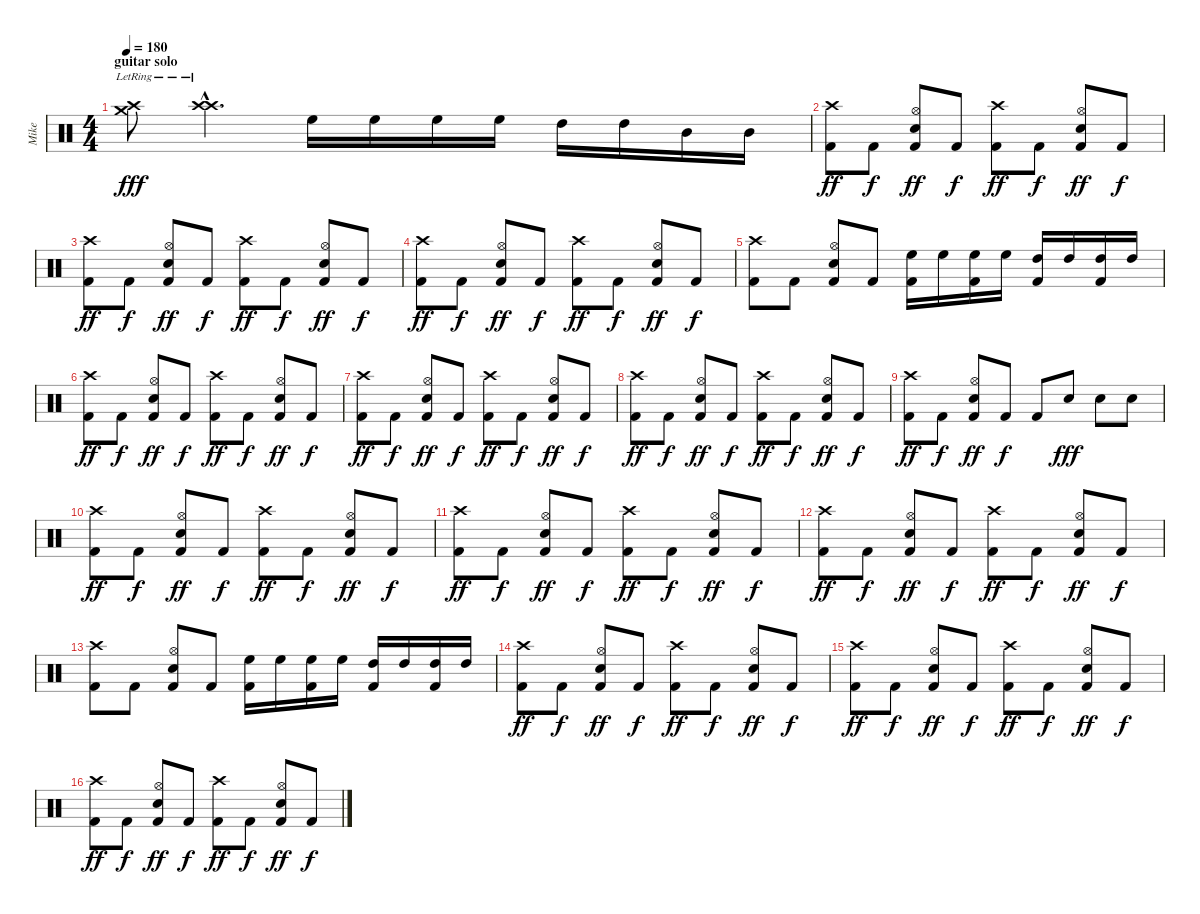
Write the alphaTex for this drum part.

\track ("Mike" "Mike") {instrument percussion}
\staff {score}
\articulation defaults
\ts (4 4)
\section ("" "guitar solo")
\tempo 180
\clef neutral
\ks c
("Crash high (hit)"{lr} "Crash medium (hit)"{lr}).8{dy fff} ("Crash high (hit)"{hac lr} "Crash high (hit)"{hac lr}).4{d} "High Floor Tom (hit)".16 "High Floor Tom (hit)".16 "High Floor Tom (hit)".16 "High Floor Tom (hit)".16 "High Tom (hit)".16 "High Tom (hit)".16 "Mid Tom (hit)".16 "Mid Tom (hit)".16 |
("Crash high (hit)" "Kick (hit) 2").8{dy ff} "Kick (hit) 2".8{dy f} ("Hi-Hat (open)" "Snare (hit) 2" "Kick (hit) 2").8{dy ff} "Kick (hit) 2".8{dy f} ("Crash high (hit)" "Kick (hit) 2").8{dy ff} "Kick (hit) 2".8{dy f} ("Hi-Hat (open)" "Snare (hit) 2" "Kick (hit) 2").8{dy ff} "Kick (hit) 2".8{dy f} |
("Crash high (hit)" "Kick (hit) 2").8{dy ff} "Kick (hit) 2".8{dy f} ("Hi-Hat (open)" "Snare (hit) 2" "Kick (hit) 2").8{dy ff} "Kick (hit) 2".8{dy f} ("Crash high (hit)" "Kick (hit) 2").8{dy ff} "Kick (hit) 2".8{dy f} ("Hi-Hat (open)" "Snare (hit) 2" "Kick (hit) 2").8{dy ff} "Kick (hit) 2".8{dy f} |
("Crash high (hit)" "Kick (hit) 2").8{dy ff} "Kick (hit) 2".8{dy f} ("Hi-Hat (open)" "Snare (hit) 2" "Kick (hit) 2").8{dy ff} "Kick (hit) 2".8{dy f} ("Crash high (hit)" "Kick (hit) 2").8{dy ff} "Kick (hit) 2".8{dy f} ("Hi-Hat (open)" "Snare (hit) 2" "Kick (hit) 2").8{dy ff} "Kick (hit) 2".8{dy f} |
("Crash high (hit)" "Kick (hit) 2").8 "Kick (hit) 2".8 ("Hi-Hat (open)" "Snare (hit) 2" "Kick (hit) 2").8 "Kick (hit) 2".8 ("High Floor Tom (hit)" "Kick (hit) 2").16 "High Floor Tom (hit)".16 ("High Floor Tom (hit)" "Kick (hit) 2").16 "High Floor Tom (hit)".16 ("High Tom (hit)" "Kick (hit) 2").16 "High Tom (hit)".16 ("High Tom (hit)" "Kick (hit) 2").16 "High Tom (hit)".16 |
("Crash high (hit)" "Kick (hit) 2").8{dy ff} "Kick (hit) 2".8{dy f} ("Hi-Hat (open)" "Snare (hit) 2" "Kick (hit) 2").8{dy ff} "Kick (hit) 2".8{dy f} ("Crash high (hit)" "Kick (hit) 2").8{dy ff} "Kick (hit) 2".8{dy f} ("Hi-Hat (open)" "Snare (hit) 2" "Kick (hit) 2").8{dy ff} "Kick (hit) 2".8{dy f} |
("Crash high (hit)" "Kick (hit) 2").8{dy ff} "Kick (hit) 2".8{dy f} ("Hi-Hat (open)" "Snare (hit) 2" "Kick (hit) 2").8{dy ff} "Kick (hit) 2".8{dy f} ("Crash high (hit)" "Kick (hit) 2").8{dy ff} "Kick (hit) 2".8{dy f} ("Hi-Hat (open)" "Snare (hit) 2" "Kick (hit) 2").8{dy ff} "Kick (hit) 2".8{dy f} |
("Crash high (hit)" "Kick (hit) 2").8{dy ff} "Kick (hit) 2".8{dy f} ("Hi-Hat (open)" "Snare (hit) 2" "Kick (hit) 2").8{dy ff} "Kick (hit) 2".8{dy f} ("Crash high (hit)" "Kick (hit) 2").8{dy ff} "Kick (hit) 2".8{dy f} ("Hi-Hat (open)" "Snare (hit) 2" "Kick (hit) 2").8{dy ff} "Kick (hit) 2".8{dy f} |
("Crash high (hit)" "Kick (hit) 2").8{dy ff} "Kick (hit) 2".8{dy f} ("Hi-Hat (open)" "Snare (hit) 2" "Kick (hit) 2").8{dy ff} "Kick (hit) 2".8{dy f} "Kick (hit) 2".8 "Snare (hit) 2".8{dy fff} "Snare (hit) 2".8 "Snare (hit) 2".8 |
("Crash high (hit)" "Kick (hit) 2").8{dy ff} "Kick (hit) 2".8{dy f} ("Hi-Hat (open)" "Snare (hit) 2" "Kick (hit) 2").8{dy ff} "Kick (hit) 2".8{dy f} ("Crash high (hit)" "Kick (hit) 2").8{dy ff} "Kick (hit) 2".8{dy f} ("Hi-Hat (open)" "Snare (hit) 2" "Kick (hit) 2").8{dy ff} "Kick (hit) 2".8{dy f} |
("Crash high (hit)" "Kick (hit) 2").8{dy ff} "Kick (hit) 2".8{dy f} ("Hi-Hat (open)" "Snare (hit) 2" "Kick (hit) 2").8{dy ff} "Kick (hit) 2".8{dy f} ("Crash high (hit)" "Kick (hit) 2").8{dy ff} "Kick (hit) 2".8{dy f} ("Hi-Hat (open)" "Snare (hit) 2" "Kick (hit) 2").8{dy ff} "Kick (hit) 2".8{dy f} |
("Crash high (hit)" "Kick (hit) 2").8{dy ff} "Kick (hit) 2".8{dy f} ("Hi-Hat (open)" "Snare (hit) 2" "Kick (hit) 2").8{dy ff} "Kick (hit) 2".8{dy f} ("Crash high (hit)" "Kick (hit) 2").8{dy ff} "Kick (hit) 2".8{dy f} ("Hi-Hat (open)" "Snare (hit) 2" "Kick (hit) 2").8{dy ff} "Kick (hit) 2".8{dy f} |
("Crash high (hit)" "Kick (hit) 2").8 "Kick (hit) 2".8 ("Hi-Hat (open)" "Snare (hit) 2" "Kick (hit) 2").8 "Kick (hit) 2".8 ("High Floor Tom (hit)" "Kick (hit) 2").16 "High Floor Tom (hit)".16 ("High Floor Tom (hit)" "Kick (hit) 2").16 "High Floor Tom (hit)".16 ("High Tom (hit)" "Kick (hit) 2").16 "High Tom (hit)".16 ("High Tom (hit)" "Kick (hit) 2").16 "High Tom (hit)".16 |
("Crash high (hit)" "Kick (hit) 2").8{dy ff} "Kick (hit) 2".8{dy f} ("Hi-Hat (open)" "Snare (hit) 2" "Kick (hit) 2").8{dy ff} "Kick (hit) 2".8{dy f} ("Crash high (hit)" "Kick (hit) 2").8{dy ff} "Kick (hit) 2".8{dy f} ("Hi-Hat (open)" "Snare (hit) 2" "Kick (hit) 2").8{dy ff} "Kick (hit) 2".8{dy f} |
("Crash high (hit)" "Kick (hit) 2").8{dy ff} "Kick (hit) 2".8{dy f} ("Hi-Hat (open)" "Snare (hit) 2" "Kick (hit) 2").8{dy ff} "Kick (hit) 2".8{dy f} ("Crash high (hit)" "Kick (hit) 2").8{dy ff} "Kick (hit) 2".8{dy f} ("Hi-Hat (open)" "Snare (hit) 2" "Kick (hit) 2").8{dy ff} "Kick (hit) 2".8{dy f} |
("Crash high (hit)" "Kick (hit) 2").8{dy ff} "Kick (hit) 2".8{dy f} ("Hi-Hat (open)" "Snare (hit) 2" "Kick (hit) 2").8{dy ff} "Kick (hit) 2".8{dy f} ("Crash high (hit)" "Kick (hit) 2").8{dy ff} "Kick (hit) 2".8{dy f} ("Hi-Hat (open)" "Snare (hit) 2" "Kick (hit) 2").8{dy ff} "Kick (hit) 2".8{dy f}
